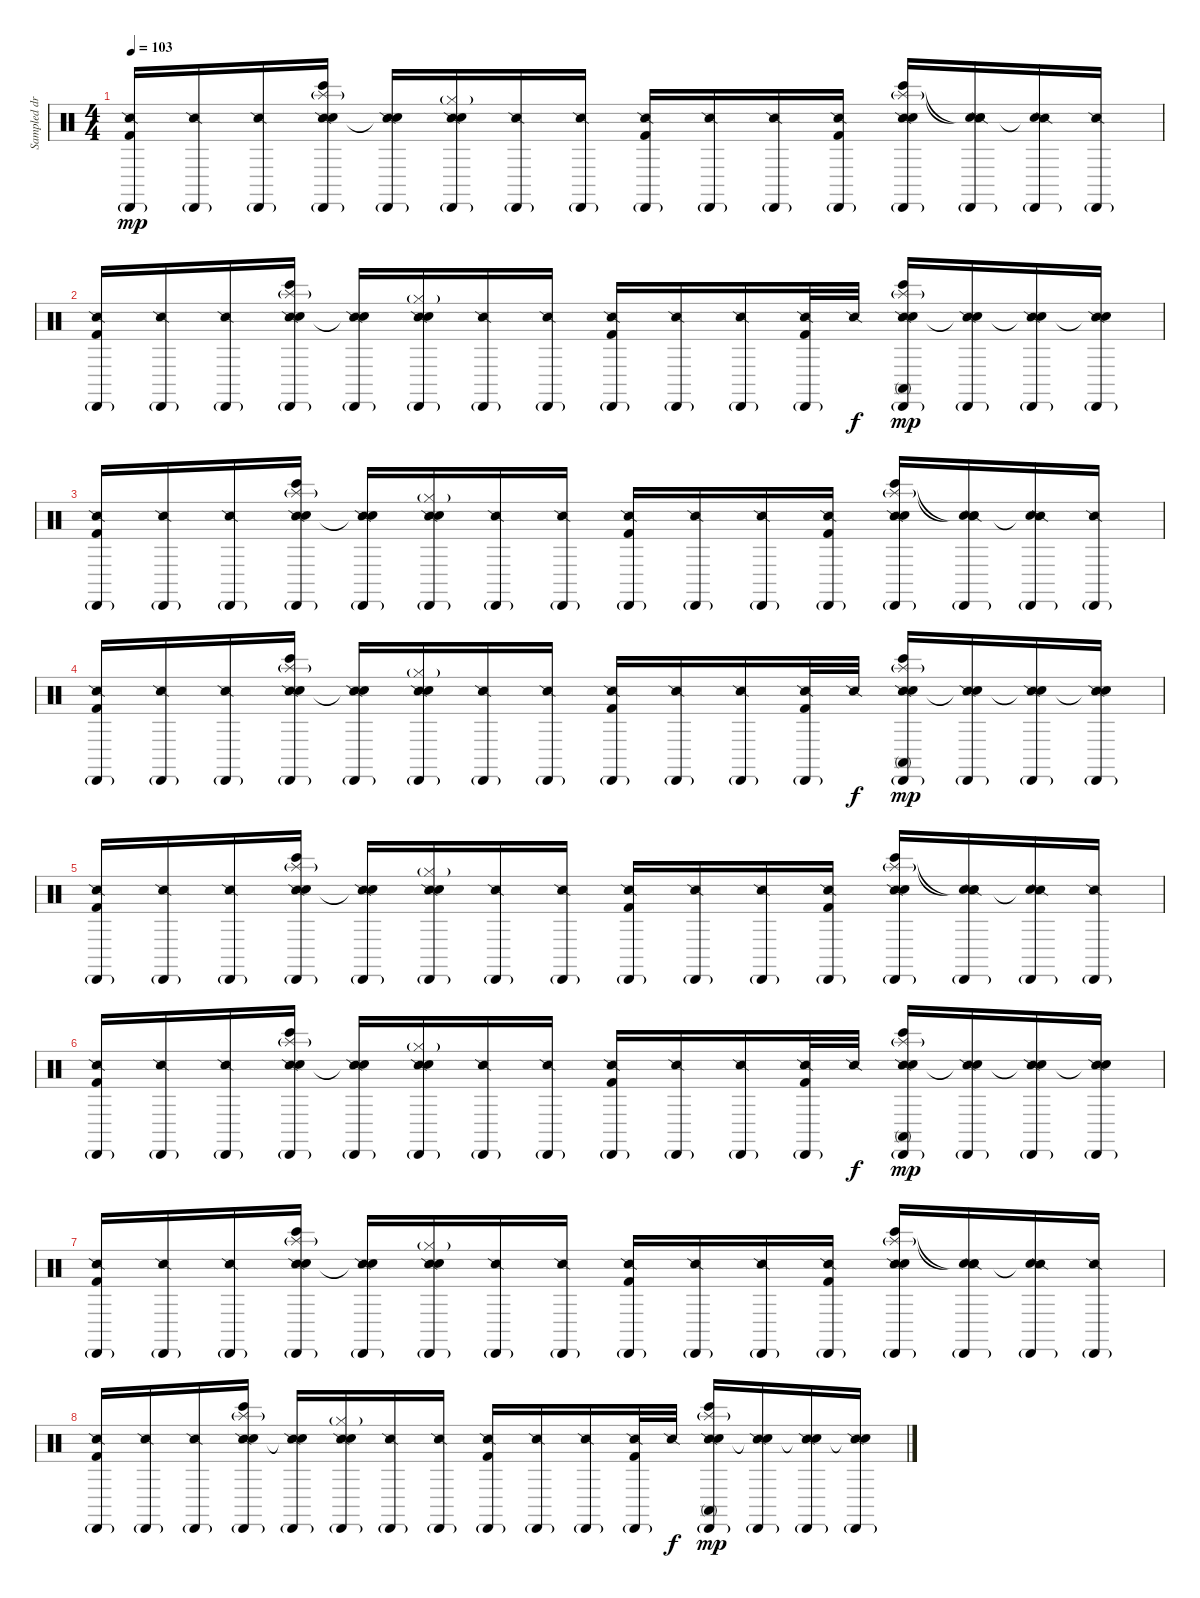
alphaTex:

\track ("Sampled drums (Rob with Joe)" "Sampled dr") {instrument percussion}
\staff {score}
\articulation defaults
\ts (4 4)
\tempo 103
\clef neutral
\ks c
("Cabasa (hit)"{g} "Snare (side stick) 2" "Kick (hit) 2").16{dy mp} ("Cabasa (hit)"{g} "Snare (side stick) 2").16 ("Cabasa (hit)"{g} "Snare (side stick) 2").16 ("Cabasa (hit)"{g} "Splash (hit)"{g} "Snare (side stick) 2" "Bongo High (hit)" "Snare (hit) 2").16 ("Cabasa (hit)"{g} "Snare (side stick) 2" "Snare (hit)"{t}).16 ("Cabasa (hit)"{g} "Hi-Hat (closed)"{g} "Snare (side stick) 2" "Snare (hit) 2").16 ("Cabasa (hit)"{g} "Snare (side stick) 2").16 ("Cabasa (hit)"{g} "Snare (side stick) 2").16 ("Cabasa (hit)"{g} "Snare (side stick) 2" "Kick (hit) 2").16 ("Cabasa (hit)"{g} "Snare (side stick) 2").16 ("Cabasa (hit)"{g} "Snare (side stick) 2").16 ("Cabasa (hit)"{g} "Snare (side stick) 2" "Kick (hit) 2").16 ("Cabasa (hit)"{g} "Splash (hit)"{g} "Snare (side stick) 2" "Bongo High (hit)" "Snare (hit) 2").16 ("Cabasa (hit)"{g} "Snare (hit)"{t} "Snare (side stick) 2" "Snare (hit)"{t}).16 ("Cabasa (hit)"{g} "Snare (hit)"{t} "Snare (side stick) 2").16 ("Cabasa (hit)"{g} "Snare (side stick) 2").16 |
("Cabasa (hit)"{g} "Snare (side stick) 2" "Kick (hit) 2").16 ("Cabasa (hit)"{g} "Snare (side stick) 2").16 ("Cabasa (hit)"{g} "Snare (side stick) 2").16 ("Cabasa (hit)"{g} "Splash (hit)"{g} "Snare (side stick) 2" "Bongo High (hit)" "Snare (hit) 2").16 ("Cabasa (hit)"{g} "Snare (side stick) 2" "Snare (hit)"{t}).16 ("Cabasa (hit)"{g} "Hi-Hat (closed)"{g} "Snare (side stick) 2" "Snare (hit) 2").16 ("Cabasa (hit)"{g} "Snare (side stick) 2").16 ("Cabasa (hit)"{g} "Snare (side stick) 2").16 ("Cabasa (hit)"{g} "Snare (side stick) 2" "Kick (hit) 2").16 ("Cabasa (hit)"{g} "Snare (side stick) 2").16 ("Cabasa (hit)"{g} "Snare (side stick) 2").16 ("Cabasa (hit)"{g} "Snare (side stick) 2" "Kick (hit) 2").32 "Snare (side stick) 2".32{dy f} ("Cabasa (hit)"{g} "Conga high (mute)" "Snare (side stick) 2" "Bongo High (hit)" "Snare (hit) 2" "Splash (hit)"{g}).16{dy mp} ("Cabasa (hit)"{g} "Snare (side stick) 2" "Snare (hit)"{t}).16 ("Cabasa (hit)"{g} "Snare (side stick) 2" "Snare (hit)"{t}).16 ("Cabasa (hit)"{g} "Snare (side stick) 2" "Snare (hit)"{t}).16 |
("Cabasa (hit)"{g} "Snare (side stick) 2" "Kick (hit) 2").16 ("Cabasa (hit)"{g} "Snare (side stick) 2").16 ("Cabasa (hit)"{g} "Snare (side stick) 2").16 ("Cabasa (hit)"{g} "Splash (hit)"{g} "Snare (side stick) 2" "Bongo High (hit)" "Snare (hit) 2").16 ("Cabasa (hit)"{g} "Snare (side stick) 2" "Snare (hit)"{t}).16 ("Cabasa (hit)"{g} "Hi-Hat (closed)"{g} "Snare (side stick) 2" "Snare (hit) 2").16 ("Cabasa (hit)"{g} "Snare (side stick) 2").16 ("Cabasa (hit)"{g} "Snare (side stick) 2").16 ("Cabasa (hit)"{g} "Snare (side stick) 2" "Kick (hit) 2").16 ("Cabasa (hit)"{g} "Snare (side stick) 2").16 ("Cabasa (hit)"{g} "Snare (side stick) 2").16 ("Cabasa (hit)"{g} "Snare (side stick) 2" "Kick (hit) 2").16 ("Cabasa (hit)"{g} "Splash (hit)"{g} "Snare (side stick) 2" "Bongo High (hit)" "Snare (hit) 2").16 ("Cabasa (hit)"{g} "Snare (hit)"{t} "Snare (side stick) 2" "Snare (hit)"{t}).16 ("Cabasa (hit)"{g} "Snare (hit)"{t} "Snare (side stick) 2").16 ("Cabasa (hit)"{g} "Snare (side stick) 2").16 |
("Cabasa (hit)"{g} "Snare (side stick) 2" "Kick (hit) 2").16 ("Cabasa (hit)"{g} "Snare (side stick) 2").16 ("Cabasa (hit)"{g} "Snare (side stick) 2").16 ("Cabasa (hit)"{g} "Splash (hit)"{g} "Snare (side stick) 2" "Bongo High (hit)" "Snare (hit) 2").16 ("Cabasa (hit)"{g} "Snare (side stick) 2" "Snare (hit)"{t}).16 ("Cabasa (hit)"{g} "Hi-Hat (closed)"{g} "Snare (side stick) 2" "Snare (hit) 2").16 ("Cabasa (hit)"{g} "Snare (side stick) 2").16 ("Cabasa (hit)"{g} "Snare (side stick) 2").16 ("Cabasa (hit)"{g} "Snare (side stick) 2" "Kick (hit) 2").16 ("Cabasa (hit)"{g} "Snare (side stick) 2").16 ("Cabasa (hit)"{g} "Snare (side stick) 2").16 ("Cabasa (hit)"{g} "Snare (side stick) 2" "Kick (hit) 2").32 "Snare (side stick) 2".32{dy f} ("Cabasa (hit)"{g} "Conga high (mute)" "Snare (side stick) 2" "Bongo High (hit)" "Snare (hit) 2" "Splash (hit)"{g}).16{dy mp} ("Cabasa (hit)"{g} "Snare (side stick) 2" "Snare (hit)"{t}).16 ("Cabasa (hit)"{g} "Snare (side stick) 2" "Snare (hit)"{t}).16 ("Cabasa (hit)"{g} "Snare (side stick) 2" "Snare (hit)"{t}).16 |
("Cabasa (hit)"{g} "Snare (side stick) 2" "Kick (hit) 2").16 ("Cabasa (hit)"{g} "Snare (side stick) 2").16 ("Cabasa (hit)"{g} "Snare (side stick) 2").16 ("Cabasa (hit)"{g} "Splash (hit)"{g} "Snare (side stick) 2" "Bongo High (hit)" "Snare (hit) 2").16 ("Cabasa (hit)"{g} "Snare (side stick) 2" "Snare (hit)"{t}).16 ("Cabasa (hit)"{g} "Hi-Hat (closed)"{g} "Snare (side stick) 2" "Snare (hit) 2").16 ("Cabasa (hit)"{g} "Snare (side stick) 2").16 ("Cabasa (hit)"{g} "Snare (side stick) 2").16 ("Cabasa (hit)"{g} "Snare (side stick) 2" "Kick (hit) 2").16 ("Cabasa (hit)"{g} "Snare (side stick) 2").16 ("Cabasa (hit)"{g} "Snare (side stick) 2").16 ("Cabasa (hit)"{g} "Snare (side stick) 2" "Kick (hit) 2").16 ("Cabasa (hit)"{g} "Splash (hit)"{g} "Snare (side stick) 2" "Bongo High (hit)" "Snare (hit) 2").16 ("Cabasa (hit)"{g} "Snare (hit)"{t} "Snare (side stick) 2" "Snare (hit)"{t}).16 ("Cabasa (hit)"{g} "Snare (hit)"{t} "Snare (side stick) 2").16 ("Cabasa (hit)"{g} "Snare (side stick) 2").16 |
("Cabasa (hit)"{g} "Snare (side stick) 2" "Kick (hit) 2").16 ("Cabasa (hit)"{g} "Snare (side stick) 2").16 ("Cabasa (hit)"{g} "Snare (side stick) 2").16 ("Cabasa (hit)"{g} "Splash (hit)"{g} "Snare (side stick) 2" "Bongo High (hit)" "Snare (hit) 2").16 ("Cabasa (hit)"{g} "Snare (side stick) 2" "Snare (hit)"{t}).16 ("Cabasa (hit)"{g} "Hi-Hat (closed)"{g} "Snare (side stick) 2" "Snare (hit) 2").16 ("Cabasa (hit)"{g} "Snare (side stick) 2").16 ("Cabasa (hit)"{g} "Snare (side stick) 2").16 ("Cabasa (hit)"{g} "Snare (side stick) 2" "Kick (hit) 2").16 ("Cabasa (hit)"{g} "Snare (side stick) 2").16 ("Cabasa (hit)"{g} "Snare (side stick) 2").16 ("Cabasa (hit)"{g} "Snare (side stick) 2" "Kick (hit) 2").32 "Snare (side stick) 2".32{dy f} ("Cabasa (hit)"{g} "Conga high (mute)" "Snare (side stick) 2" "Bongo High (hit)" "Snare (hit) 2" "Splash (hit)"{g}).16{dy mp} ("Cabasa (hit)"{g} "Snare (side stick) 2" "Snare (hit)"{t}).16 ("Cabasa (hit)"{g} "Snare (side stick) 2" "Snare (hit)"{t}).16 ("Cabasa (hit)"{g} "Snare (side stick) 2" "Snare (hit)"{t}).16 |
("Cabasa (hit)"{g} "Snare (side stick) 2" "Kick (hit) 2").16 ("Cabasa (hit)"{g} "Snare (side stick) 2").16 ("Cabasa (hit)"{g} "Snare (side stick) 2").16 ("Cabasa (hit)"{g} "Splash (hit)"{g} "Snare (side stick) 2" "Bongo High (hit)" "Snare (hit) 2").16 ("Cabasa (hit)"{g} "Snare (side stick) 2" "Snare (hit)"{t}).16 ("Cabasa (hit)"{g} "Hi-Hat (closed)"{g} "Snare (side stick) 2" "Snare (hit) 2").16 ("Cabasa (hit)"{g} "Snare (side stick) 2").16 ("Cabasa (hit)"{g} "Snare (side stick) 2").16 ("Cabasa (hit)"{g} "Snare (side stick) 2" "Kick (hit) 2").16 ("Cabasa (hit)"{g} "Snare (side stick) 2").16 ("Cabasa (hit)"{g} "Snare (side stick) 2").16 ("Cabasa (hit)"{g} "Snare (side stick) 2" "Kick (hit) 2").16 ("Cabasa (hit)"{g} "Splash (hit)"{g} "Snare (side stick) 2" "Bongo High (hit)" "Snare (hit) 2").16 ("Cabasa (hit)"{g} "Snare (hit)"{t} "Snare (side stick) 2" "Snare (hit)"{t}).16 ("Cabasa (hit)"{g} "Snare (hit)"{t} "Snare (side stick) 2").16 ("Cabasa (hit)"{g} "Snare (side stick) 2").16 |
("Cabasa (hit)"{g} "Snare (side stick) 2" "Kick (hit) 2").16 ("Cabasa (hit)"{g} "Snare (side stick) 2").16 ("Cabasa (hit)"{g} "Snare (side stick) 2").16 ("Cabasa (hit)"{g} "Splash (hit)"{g} "Snare (side stick) 2" "Bongo High (hit)" "Snare (hit) 2").16 ("Cabasa (hit)"{g} "Snare (side stick) 2" "Snare (hit)"{t}).16 ("Cabasa (hit)"{g} "Hi-Hat (closed)"{g} "Snare (side stick) 2" "Snare (hit) 2").16 ("Cabasa (hit)"{g} "Snare (side stick) 2").16 ("Cabasa (hit)"{g} "Snare (side stick) 2").16 ("Cabasa (hit)"{g} "Snare (side stick) 2" "Kick (hit) 2").16 ("Cabasa (hit)"{g} "Snare (side stick) 2").16 ("Cabasa (hit)"{g} "Snare (side stick) 2").16 ("Cabasa (hit)"{g} "Snare (side stick) 2" "Kick (hit) 2").32 "Snare (side stick) 2".32{dy f} ("Cabasa (hit)"{g} "Conga high (mute)" "Snare (side stick) 2" "Bongo High (hit)" "Snare (hit) 2" "Splash (hit)"{g}).16{dy mp} ("Cabasa (hit)"{g} "Snare (side stick) 2" "Snare (hit)"{t}).16 ("Cabasa (hit)"{g} "Snare (side stick) 2" "Snare (hit)"{t}).16 ("Cabasa (hit)"{g} "Snare (side stick) 2" "Snare (hit)"{t}).16
